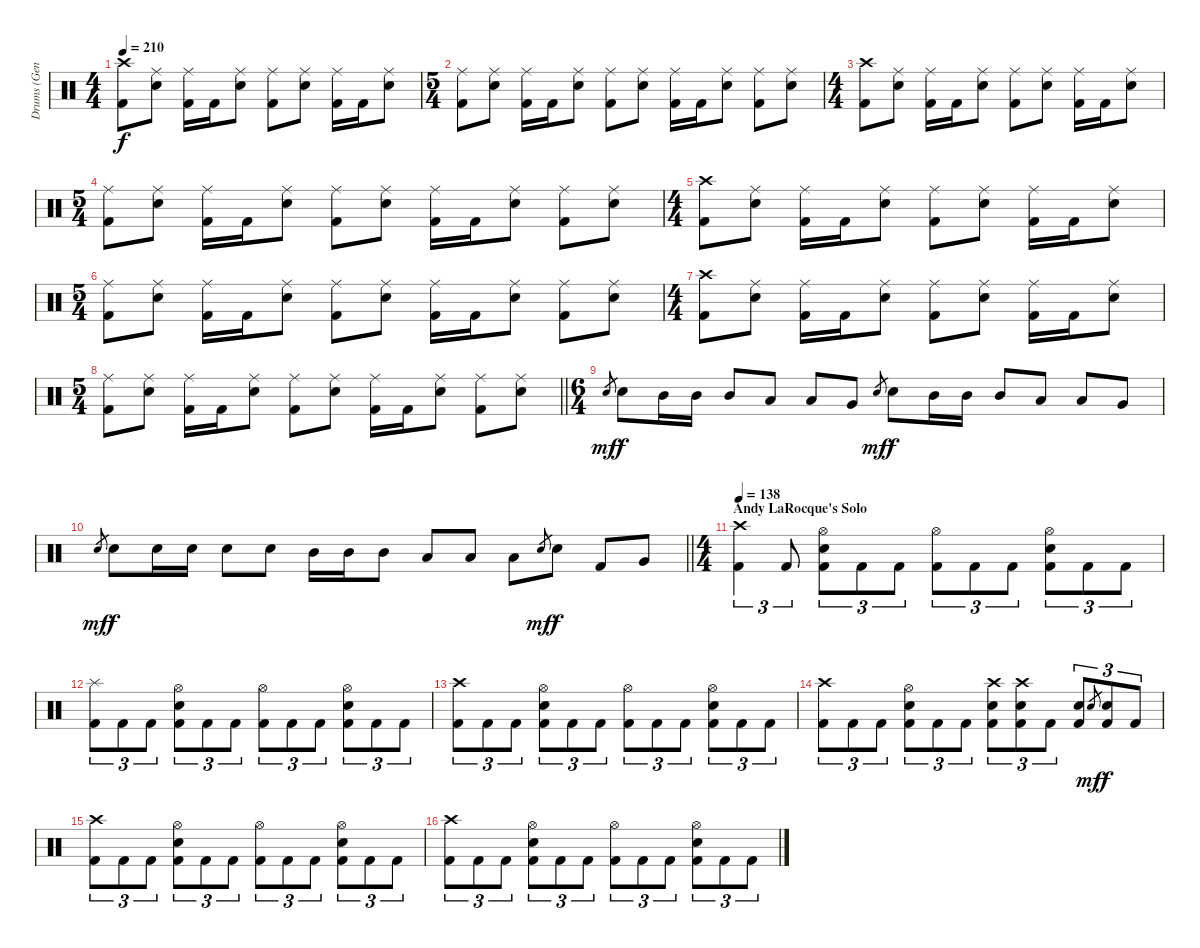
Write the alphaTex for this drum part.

\track ("Drums (Gene Hoglan)" "Drums (Gen") {instrument percussion}
\staff {score}
\articulation defaults
\ts (4 4)
\tempo 210
\clef neutral
\ks c
("Crash high (hit)" "Kick (hit) 2").8{dy f} ("Ride (middle)" "Snare (hit) 2").8 ("Ride (middle)" "Kick (hit) 2").16 "Kick (hit) 2".16 ("Ride (middle)" "Snare (hit) 2").8 ("Ride (middle)" "Kick (hit) 2").8 ("Ride (middle)" "Snare (hit) 2").8 ("Ride (middle)" "Kick (hit) 2").16 "Kick (hit) 2".16 ("Ride (middle)" "Snare (hit) 2").8 |
\ts (5 4)
("Ride (middle)" "Kick (hit) 2").8 ("Ride (middle)" "Snare (hit) 2").8 ("Ride (middle)" "Kick (hit) 2").16 "Kick (hit) 2".16 ("Ride (middle)" "Snare (hit) 2").8 ("Ride (middle)" "Kick (hit) 2").8 ("Ride (middle)" "Snare (hit) 2").8 ("Ride (middle)" "Kick (hit) 2").16 "Kick (hit) 2".16 ("Ride (middle)" "Snare (hit) 2").8 ("Ride (middle)" "Kick (hit) 2").8 ("Ride (middle)" "Snare (hit) 2").8 |
\ts (4 4)
("Crash high (hit)" "Kick (hit) 2").8 ("Ride (middle)" "Snare (hit) 2").8 ("Ride (middle)" "Kick (hit) 2").16 "Kick (hit) 2".16 ("Ride (middle)" "Snare (hit) 2").8 ("Ride (middle)" "Kick (hit) 2").8 ("Ride (middle)" "Snare (hit) 2").8 ("Ride (middle)" "Kick (hit) 2").16 "Kick (hit) 2".16 ("Ride (middle)" "Snare (hit) 2").8 |
\ts (5 4)
("Ride (middle)" "Kick (hit) 2").8 ("Ride (middle)" "Snare (hit) 2").8 ("Ride (middle)" "Kick (hit) 2").16 "Kick (hit) 2".16 ("Ride (middle)" "Snare (hit) 2").8 ("Ride (middle)" "Kick (hit) 2").8 ("Ride (middle)" "Snare (hit) 2").8 ("Ride (middle)" "Kick (hit) 2").16 "Kick (hit) 2".16 ("Ride (middle)" "Snare (hit) 2").8 ("Ride (middle)" "Kick (hit) 2").8 ("Ride (middle)" "Snare (hit) 2").8 |
\ts (4 4)
("Crash high (hit)" "Kick (hit) 2").8 ("Ride (middle)" "Snare (hit) 2").8 ("Ride (middle)" "Kick (hit) 2").16 "Kick (hit) 2".16 ("Ride (middle)" "Snare (hit) 2").8 ("Ride (middle)" "Kick (hit) 2").8 ("Ride (middle)" "Snare (hit) 2").8 ("Ride (middle)" "Kick (hit) 2").16 "Kick (hit) 2".16 ("Ride (middle)" "Snare (hit) 2").8 |
\ts (5 4)
("Ride (middle)" "Kick (hit) 2").8 ("Ride (middle)" "Snare (hit) 2").8 ("Ride (middle)" "Kick (hit) 2").16 "Kick (hit) 2".16 ("Ride (middle)" "Snare (hit) 2").8 ("Ride (middle)" "Kick (hit) 2").8 ("Ride (middle)" "Snare (hit) 2").8 ("Ride (middle)" "Kick (hit) 2").16 "Kick (hit) 2".16 ("Ride (middle)" "Snare (hit) 2").8 ("Ride (middle)" "Kick (hit) 2").8 ("Ride (middle)" "Snare (hit) 2").8 |
\ts (4 4)
("Crash high (hit)" "Kick (hit) 2").8 ("Ride (middle)" "Snare (hit) 2").8 ("Ride (middle)" "Kick (hit) 2").16 "Kick (hit) 2".16 ("Ride (middle)" "Snare (hit) 2").8 ("Ride (middle)" "Kick (hit) 2").8 ("Ride (middle)" "Snare (hit) 2").8 ("Ride (middle)" "Kick (hit) 2").16 "Kick (hit) 2".16 ("Ride (middle)" "Snare (hit) 2").8 |
\ts (5 4)
\barLineRight lightlight
("Ride (middle)" "Kick (hit) 2").8 ("Ride (middle)" "Snare (hit) 2").8 ("Ride (middle)" "Kick (hit) 2").16 "Kick (hit) 2".16 ("Ride (middle)" "Snare (hit) 2").8 ("Ride (middle)" "Kick (hit) 2").8 ("Ride (middle)" "Snare (hit) 2").8 ("Ride (middle)" "Kick (hit) 2").16 "Kick (hit) 2".16 ("Ride (middle)" "Snare (hit) 2").8 ("Ride (middle)" "Kick (hit) 2").8 ("Ride (middle)" "Snare (hit) 2").8 |
\ts (6 4)
\section ("" "")
"Snare (hit) 2".8{gr dy mf} "Snare (hit) 2".8{dy f} "Mid Tom (hit)".16 "Mid Tom (hit)".16 "Mid Tom (hit)".8 "Low Tom (hit)".8 "Low Tom (hit)".8 "Very Low Tom (hit)".8 "Snare (hit) 2".8{gr dy mf} "Snare (hit) 2".8{dy f} "Mid Tom (hit)".16 "Mid Tom (hit)".16 "Mid Tom (hit)".8 "Low Tom (hit)".8 "Low Tom (hit)".8 "Very Low Tom (hit)".8 |
\barLineRight lightlight "Snare (hit) 2".8{gr dy mf} "Snare (hit) 2".8{dy f} "Snare (hit) 2".16 "Snare (hit) 2".16 "Snare (hit) 2".8 "Snare (hit) 2".8 "Mid Tom (hit)".16 "Mid Tom (hit)".16 "Mid Tom (hit)".8 "Low Tom (hit)".8 "Low Tom (hit)".8 "Low Tom (hit)".8 "Snare (hit) 2".8{gr dy mf} "Snare (hit) 2".8{dy f} "Kick (hit) 2".8 "Very Low Tom (hit)".8
|
\ts (4 4)
\section ("" "Andy LaRocque's Solo")
\tempo 138
("Crash high (hit)" "Kick (hit) 2").4{tu (3 2)} "Kick (hit) 2".8{tu (3 2)} ("Hi-Hat (open)" "Snare (hit) 2" "Kick (hit) 2").8{tu (3 2)} "Kick (hit) 2".8{tu (3 2)} "Kick (hit) 2".8{tu (3 2)} ("Hi-Hat (open)" "Kick (hit) 2").8{tu (3 2)} "Kick (hit) 2".8{tu (3 2)} "Kick (hit) 2".8{tu (3 2)} ("Hi-Hat (open)" "Snare (hit) 2" "Kick (hit) 2").8{tu (3 2)} "Kick (hit) 2".8{tu (3 2)} "Kick (hit) 2".8{tu (3 2)} |
("Splash (hit)" "Kick (hit) 2").8{tu (3 2)} "Kick (hit) 2".8{tu (3 2)} "Kick (hit) 2".8{tu (3 2)} ("Hi-Hat (open)" "Snare (hit) 2" "Kick (hit) 2").8{tu (3 2)} "Kick (hit) 2".8{tu (3 2)} "Kick (hit) 2".8{tu (3 2)} ("Hi-Hat (open)" "Kick (hit) 2").8{tu (3 2)} "Kick (hit) 2".8{tu (3 2)} "Kick (hit) 2".8{tu (3 2)} ("Hi-Hat (open)" "Snare (hit) 2" "Kick (hit) 2").8{tu (3 2)} "Kick (hit) 2".8{tu (3 2)} "Kick (hit) 2".8{tu (3 2)} |
("Crash high (hit)" "Kick (hit) 2").8{tu (3 2)} "Kick (hit) 2".8{tu (3 2)} "Kick (hit) 2".8{tu (3 2)} ("Hi-Hat (open)" "Snare (hit) 2" "Kick (hit) 2").8{tu (3 2)} "Kick (hit) 2".8{tu (3 2)} "Kick (hit) 2".8{tu (3 2)} ("Hi-Hat (open)" "Kick (hit) 2").8{tu (3 2)} "Kick (hit) 2".8{tu (3 2)} "Kick (hit) 2".8{tu (3 2)} ("Hi-Hat (open)" "Snare (hit) 2" "Kick (hit) 2").8{tu (3 2)} "Kick (hit) 2".8{tu (3 2)} "Kick (hit) 2".8{tu (3 2)} |
("Crash high (hit)" "Kick (hit) 2").8{tu (3 2)} "Kick (hit) 2".8{tu (3 2)} "Kick (hit) 2".8{tu (3 2)} ("Hi-Hat (open)" "Snare (hit) 2" "Kick (hit) 2").8{tu (3 2)} "Kick (hit) 2".8{tu (3 2)} "Kick (hit) 2".8{tu (3 2)} ("Crash high (hit)" "Snare (hit) 2" "Kick (hit) 2").8{tu (3 2)} ("Crash high (hit)" "Snare (hit) 2" "Kick (hit) 2").8{tu (3 2)} "Kick (hit) 2".8{tu (3 2)} ("Snare (hit) 2" "Kick (hit) 2").8{tu (3 2)} "Snare (hit) 2".8{gr dy mf} ("Snare (hit) 2" "Kick (hit) 2").8{tu (3 2) dy f} "Kick (hit) 2".8{tu (3 2)} |
("Crash high (hit)" "Kick (hit) 2").8{tu (3 2)} "Kick (hit) 2".8{tu (3 2)} "Kick (hit) 2".8{tu (3 2)} ("Hi-Hat (open)" "Snare (hit) 2" "Kick (hit) 2").8{tu (3 2)} "Kick (hit) 2".8{tu (3 2)} "Kick (hit) 2".8{tu (3 2)} ("Hi-Hat (open)" "Kick (hit) 2").8{tu (3 2)} "Kick (hit) 2".8{tu (3 2)} "Kick (hit) 2".8{tu (3 2)} ("Hi-Hat (open)" "Snare (hit) 2" "Kick (hit) 2").8{tu (3 2)} "Kick (hit) 2".8{tu (3 2)} "Kick (hit) 2".8{tu (3 2)} |
("Crash high (hit)" "Kick (hit) 2").8{tu (3 2)} "Kick (hit) 2".8{tu (3 2)} "Kick (hit) 2".8{tu (3 2)} ("Hi-Hat (open)" "Snare (hit) 2" "Kick (hit) 2").8{tu (3 2)} "Kick (hit) 2".8{tu (3 2)} "Kick (hit) 2".8{tu (3 2)} ("Hi-Hat (open)" "Kick (hit) 2").8{tu (3 2)} "Kick (hit) 2".8{tu (3 2)} "Kick (hit) 2".8{tu (3 2)} ("Hi-Hat (open)" "Snare (hit) 2" "Kick (hit) 2").8{tu (3 2)} "Kick (hit) 2".8{tu (3 2)} "Kick (hit) 2".8{tu (3 2)}
